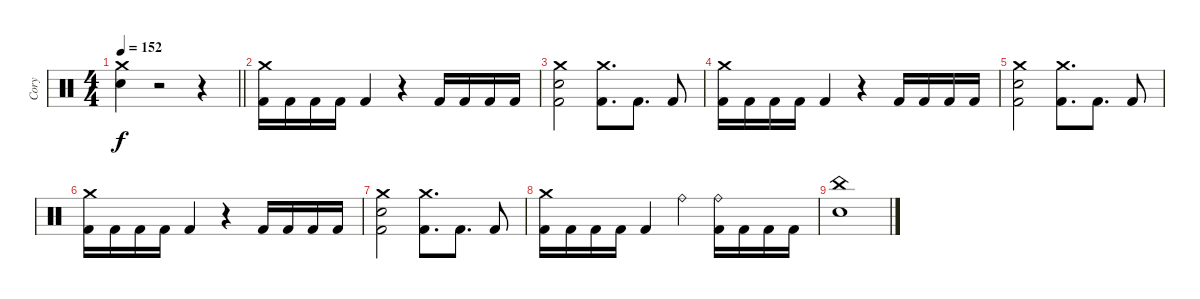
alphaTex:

\track ("Cory" "Cory") {instrument percussion}
\staff {score}
\articulation defaults
\ts (4 4)
\tempo 152
\clef neutral
\barLineRight lightlight
\ks c
("Crash medium (hit)" "Snare (hit) 2").4{dy f} r.2 r.4 |
("Crash medium (hit)" "Kick (hit) 2").16 "Kick (hit) 2".16 "Kick (hit) 2".16 "Kick (hit) 2".16 "Kick (hit) 2".4 r.4 "Kick (hit) 2".16 "Kick (hit) 2".16 "Kick (hit) 2".16 "Kick (hit) 2".16 |
("Crash medium (hit)" "Snare (hit) 2" "Kick (hit) 2").2 ("Crash medium (hit)" "Kick (hit) 2").8{d} "Kick (hit) 2".8{d} "Kick (hit) 2".8 |
("Crash medium (hit)" "Kick (hit) 2").16 "Kick (hit) 2".16 "Kick (hit) 2".16 "Kick (hit) 2".16 "Kick (hit) 2".4 r.4 "Kick (hit) 2".16 "Kick (hit) 2".16 "Kick (hit) 2".16 "Kick (hit) 2".16 |
("Crash medium (hit)" "Snare (hit) 2" "Kick (hit) 2").2 ("Crash medium (hit)" "Kick (hit) 2").8{d} "Kick (hit) 2".8{d} "Kick (hit) 2".8 |
("Crash medium (hit)" "Kick (hit) 2").16 "Kick (hit) 2".16 "Kick (hit) 2".16 "Kick (hit) 2".16 "Kick (hit) 2".4 r.4 "Kick (hit) 2".16 "Kick (hit) 2".16 "Kick (hit) 2".16 "Kick (hit) 2".16 |
("Crash medium (hit)" "Snare (hit) 2" "Kick (hit) 2").2 ("Crash medium (hit)" "Kick (hit) 2").8{d} "Kick (hit) 2".8{d} "Kick (hit) 2".8 |
("Crash medium (hit)" "Kick (hit) 2").16 "Kick (hit) 2".16 "Kick (hit) 2".16 "Kick (hit) 2".16 "Kick (hit) 2".4 "Ride (bell)".4 ("Ride (bell)" "Kick (hit) 2").16 "Kick (hit) 2".16 "Kick (hit) 2".16 "Kick (hit) 2".16 |
("China (hit)" "Snare (hit) 2").1
